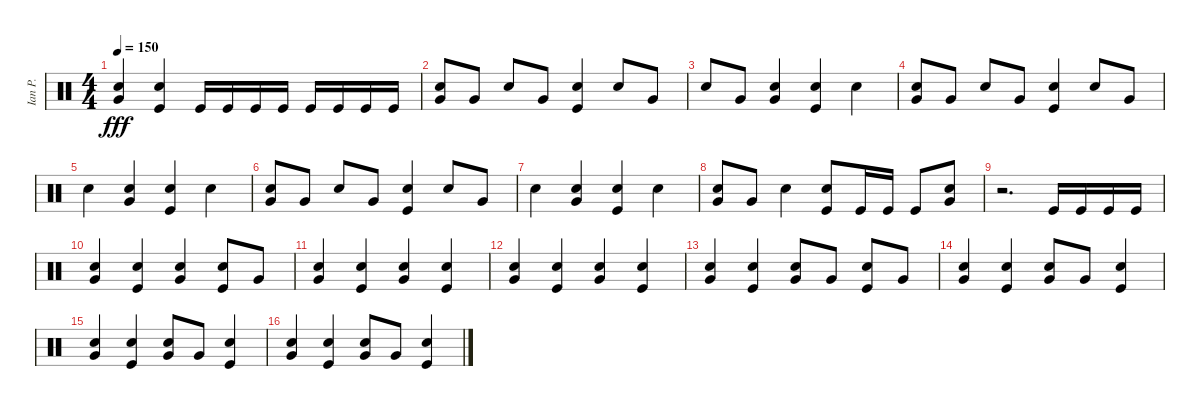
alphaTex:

\track ("Ian P." "Ian P.") {instrument percussion}
\staff {score}
\articulation defaults
\ts (4 4)
\tempo 150
\clef neutral
\ks c
("Very Low Tom (hit)" "Electric Snare (hit)").4{dy fff} ("Kick (hit)" "Electric Snare (hit)").4 "Kick (hit)".16 "Kick (hit)".16 "Kick (hit)".16 "Kick (hit)".16 "Kick (hit)".16 "Kick (hit)".16 "Kick (hit)".16 "Kick (hit)".16 |
("Very Low Tom (hit)" "Electric Snare (hit)").8 "Very Low Tom (hit)".8 "Electric Snare (hit)".8 "Very Low Tom (hit)".8 ("Electric Snare (hit)" "Kick (hit)").4 "Electric Snare (hit)".8 "Very Low Tom (hit)".8 |
"Electric Snare (hit)".8 "Very Low Tom (hit)".8 ("Very Low Tom (hit)" "Electric Snare (hit)").4 ("Kick (hit)" "Electric Snare (hit)").4 "Electric Snare (hit)".4 |
("Very Low Tom (hit)" "Electric Snare (hit)").8 "Very Low Tom (hit)".8 "Electric Snare (hit)".8 "Very Low Tom (hit)".8 ("Electric Snare (hit)" "Kick (hit)").4 "Electric Snare (hit)".8 "Very Low Tom (hit)".8 |
"Electric Snare (hit)".4 ("Very Low Tom (hit)" "Electric Snare (hit)").4 ("Kick (hit)" "Electric Snare (hit)").4 "Electric Snare (hit)".4 |
("Very Low Tom (hit)" "Electric Snare (hit)").8 "Very Low Tom (hit)".8 "Electric Snare (hit)".8 "Very Low Tom (hit)".8 ("Electric Snare (hit)" "Kick (hit)").4 "Electric Snare (hit)".8 "Very Low Tom (hit)".8 |
"Electric Snare (hit)".4 ("Very Low Tom (hit)" "Electric Snare (hit)").4 ("Kick (hit)" "Electric Snare (hit)").4 "Electric Snare (hit)".4 |
("Very Low Tom (hit)" "Electric Snare (hit)").8 "Very Low Tom (hit)".8 "Electric Snare (hit)".4 ("Kick (hit)" "Electric Snare (hit)").8 "Kick (hit)".16 "Kick (hit)".16 "Kick (hit)".8 ("Electric Snare (hit)" "Very Low Tom (hit)").8 |
r.2{d} "Kick (hit)".16 "Kick (hit)".16 "Kick (hit)".16 "Kick (hit)".16 |
("Very Low Tom (hit)" "Electric Snare (hit)").4 ("Kick (hit)" "Electric Snare (hit)").4 ("Very Low Tom (hit)" "Electric Snare (hit)").4 ("Kick (hit)" "Electric Snare (hit)").8 "Very Low Tom (hit)".8 |
("Very Low Tom (hit)" "Electric Snare (hit)").4 ("Kick (hit)" "Electric Snare (hit)").4 ("Very Low Tom (hit)" "Electric Snare (hit)").4 ("Kick (hit)" "Electric Snare (hit)").4 |
("Very Low Tom (hit)" "Electric Snare (hit)").4 ("Kick (hit)" "Electric Snare (hit)").4 ("Very Low Tom (hit)" "Electric Snare (hit)").4 ("Kick (hit)" "Electric Snare (hit)").4 |
("Very Low Tom (hit)" "Electric Snare (hit)").4 ("Kick (hit)" "Electric Snare (hit)").4 ("Very Low Tom (hit)" "Electric Snare (hit)").8 "Very Low Tom (hit)".8 ("Kick (hit)" "Electric Snare (hit)").8 "Very Low Tom (hit)".8 |
("Very Low Tom (hit)" "Electric Snare (hit)").4 ("Kick (hit)" "Electric Snare (hit)").4 ("Very Low Tom (hit)" "Electric Snare (hit)").8 "Very Low Tom (hit)".8 ("Kick (hit)" "Electric Snare (hit)").4 |
("Very Low Tom (hit)" "Electric Snare (hit)").4 ("Kick (hit)" "Electric Snare (hit)").4 ("Very Low Tom (hit)" "Electric Snare (hit)").8 "Very Low Tom (hit)".8 ("Kick (hit)" "Electric Snare (hit)").4 |
("Very Low Tom (hit)" "Electric Snare (hit)").4 ("Kick (hit)" "Electric Snare (hit)").4 ("Very Low Tom (hit)" "Electric Snare (hit)").8 "Very Low Tom (hit)".8 ("Kick (hit)" "Electric Snare (hit)").4
